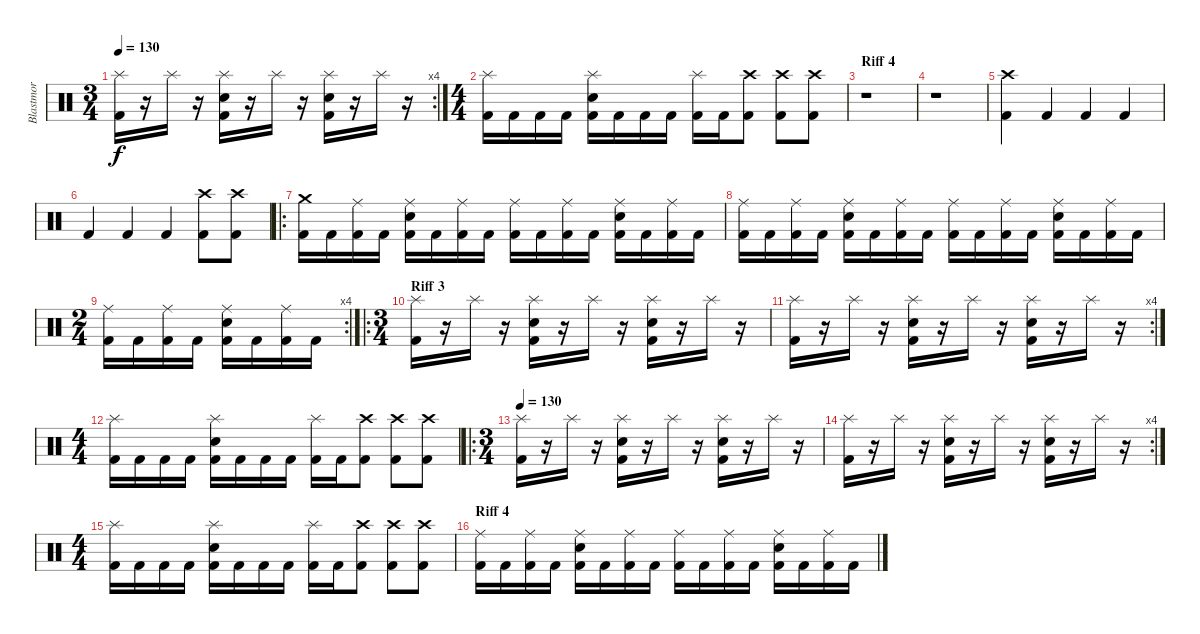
\track ("Blastmor" "Blastmor") {instrument percussion}
\staff {score}
\articulation defaults
\rc 4
\ts (3 4)
\tempo 130
\clef neutral
\ks c
("Splash (hit)" "Kick (hit) 2").16{dy f} r.16 "Splash (hit)".16 r.16 ("Splash (hit)" "Electric Snare (hit)" "Kick (hit) 2").16 r.16 "Splash (hit)".16 r.16 ("Splash (hit)" "Electric Snare (hit)" "Kick (hit) 2").16 r.16 "Splash (hit)".16 r.16 |
\ts (4 4)
\section ("" "")
("Splash (hit)" "Kick (hit) 2").16 "Kick (hit) 2".16 "Kick (hit) 2".16 "Kick (hit) 2".16 ("Splash (hit)" "Electric Snare (hit)" "Kick (hit) 2").16 "Kick (hit) 2".16 "Kick (hit) 2".16 "Kick (hit) 2".16 ("Splash (hit)" "Kick (hit) 2").16 "Kick (hit) 2".16 ("Crash high (hit)" "Kick (hit) 2").8 ("Crash high (hit)" "Kick (hit) 2").8 ("Crash high (hit)" "Kick (hit) 2").8 |
\section ("" "Riff 4")
r.1 |
r.1 |
("Crash high (hit)" "Kick (hit) 2").4 "Kick (hit) 2".4 "Kick (hit) 2".4 "Kick (hit) 2".4 |
"Kick (hit) 2".4 "Kick (hit) 2".4 "Kick (hit) 2".4 ("Crash high (hit)" "Kick (hit) 2").8 ("Crash high (hit)" "Kick (hit) 2").8 |
\ro
("Crash medium (hit)" "Kick (hit) 2").16 "Kick (hit) 2".16 ("Ride (middle)" "Kick (hit) 2").16 "Kick (hit) 2".16 ("Ride (middle)" "Electric Snare (hit)" "Kick (hit) 2").16 "Kick (hit) 2".16 ("Ride (middle)" "Kick (hit) 2").16 "Kick (hit) 2".16 ("Ride (middle)" "Kick (hit) 2").16 "Kick (hit) 2".16 ("Ride (middle)" "Kick (hit) 2").16 "Kick (hit) 2".16 ("Ride (middle)" "Electric Snare (hit)" "Kick (hit) 2").16 "Kick (hit) 2".16 ("Ride (middle)" "Kick (hit) 2").16 "Kick (hit) 2".16 |
("Ride (middle)" "Kick (hit) 2").16 "Kick (hit) 2".16 ("Ride (middle)" "Kick (hit) 2").16 "Kick (hit) 2".16 ("Ride (middle)" "Electric Snare (hit)" "Kick (hit) 2").16 "Kick (hit) 2".16 ("Ride (middle)" "Kick (hit) 2").16 "Kick (hit) 2".16 ("Ride (middle)" "Kick (hit) 2").16 "Kick (hit) 2".16 ("Ride (middle)" "Kick (hit) 2").16 "Kick (hit) 2".16 ("Ride (middle)" "Electric Snare (hit)" "Kick (hit) 2").16 "Kick (hit) 2".16 ("Ride (middle)" "Kick (hit) 2").16 "Kick (hit) 2".16 |
\rc 4
\ts (2 4)
("Ride (middle)" "Kick (hit) 2").16 "Kick (hit) 2".16 ("Ride (middle)" "Kick (hit) 2").16 "Kick (hit) 2".16 ("Ride (middle)" "Electric Snare (hit)" "Kick (hit) 2").16 "Kick (hit) 2".16 ("Ride (middle)" "Kick (hit) 2").16 "Kick (hit) 2".16 |
\ro
\ts (3 4)
\section ("" "Riff 3")
("Splash (hit)" "Kick (hit) 2").16 r.16 "Splash (hit)".16 r.16 ("Splash (hit)" "Electric Snare (hit)" "Kick (hit) 2").16 r.16 "Splash (hit)".16 r.16 ("Splash (hit)" "Electric Snare (hit)" "Kick (hit) 2").16 r.16 "Splash (hit)".16 r.16 |
\rc 4
("Splash (hit)" "Kick (hit) 2").16 r.16 "Splash (hit)".16 r.16 ("Splash (hit)" "Electric Snare (hit)" "Kick (hit) 2").16 r.16 "Splash (hit)".16 r.16 ("Splash (hit)" "Electric Snare (hit)" "Kick (hit) 2").16 r.16 "Splash (hit)".16 r.16 |
\ts (4 4)
\section ("" "")
("Splash (hit)" "Kick (hit) 2").16 "Kick (hit) 2".16 "Kick (hit) 2".16 "Kick (hit) 2".16 ("Splash (hit)" "Electric Snare (hit)" "Kick (hit) 2").16 "Kick (hit) 2".16 "Kick (hit) 2".16 "Kick (hit) 2".16 ("Splash (hit)" "Kick (hit) 2").16 "Kick (hit) 2".16 ("Crash high (hit)" "Kick (hit) 2").8 ("Crash high (hit)" "Kick (hit) 2").8 ("Crash high (hit)" "Kick (hit) 2").8 |
\ro
\ts (3 4)
\tempo 130
("Splash (hit)" "Kick (hit) 2").16 r.16 "Splash (hit)".16 r.16 ("Splash (hit)" "Electric Snare (hit)" "Kick (hit) 2").16 r.16 "Splash (hit)".16 r.16 ("Splash (hit)" "Electric Snare (hit)" "Kick (hit) 2").16 r.16 "Splash (hit)".16 r.16 |
\rc 4
("Splash (hit)" "Kick (hit) 2").16 r.16 "Splash (hit)".16 r.16 ("Splash (hit)" "Electric Snare (hit)" "Kick (hit) 2").16 r.16 "Splash (hit)".16 r.16 ("Splash (hit)" "Electric Snare (hit)" "Kick (hit) 2").16 r.16 "Splash (hit)".16 r.16 |
\ts (4 4)
\section ("" "")
("Splash (hit)" "Kick (hit) 2").16 "Kick (hit) 2".16 "Kick (hit) 2".16 "Kick (hit) 2".16 ("Splash (hit)" "Electric Snare (hit)" "Kick (hit) 2").16 "Kick (hit) 2".16 "Kick (hit) 2".16 "Kick (hit) 2".16 ("Splash (hit)" "Kick (hit) 2").16 "Kick (hit) 2".16 ("Crash high (hit)" "Kick (hit) 2").8 ("Crash high (hit)" "Kick (hit) 2").8 ("Crash high (hit)" "Kick (hit) 2").8 |
\section ("" "Riff 4")
("Ride (middle)" "Kick (hit) 2").16 "Kick (hit) 2".16 ("Ride (middle)" "Kick (hit) 2").16 "Kick (hit) 2".16 ("Ride (middle)" "Electric Snare (hit)" "Kick (hit) 2").16 "Kick (hit) 2".16 ("Ride (middle)" "Kick (hit) 2").16 "Kick (hit) 2".16 ("Ride (middle)" "Kick (hit) 2").16 "Kick (hit) 2".16 ("Ride (middle)" "Kick (hit) 2").16 "Kick (hit) 2".16 ("Ride (middle)" "Electric Snare (hit)" "Kick (hit) 2").16 "Kick (hit) 2".16 ("Ride (middle)" "Kick (hit) 2").16 "Kick (hit) 2".16
